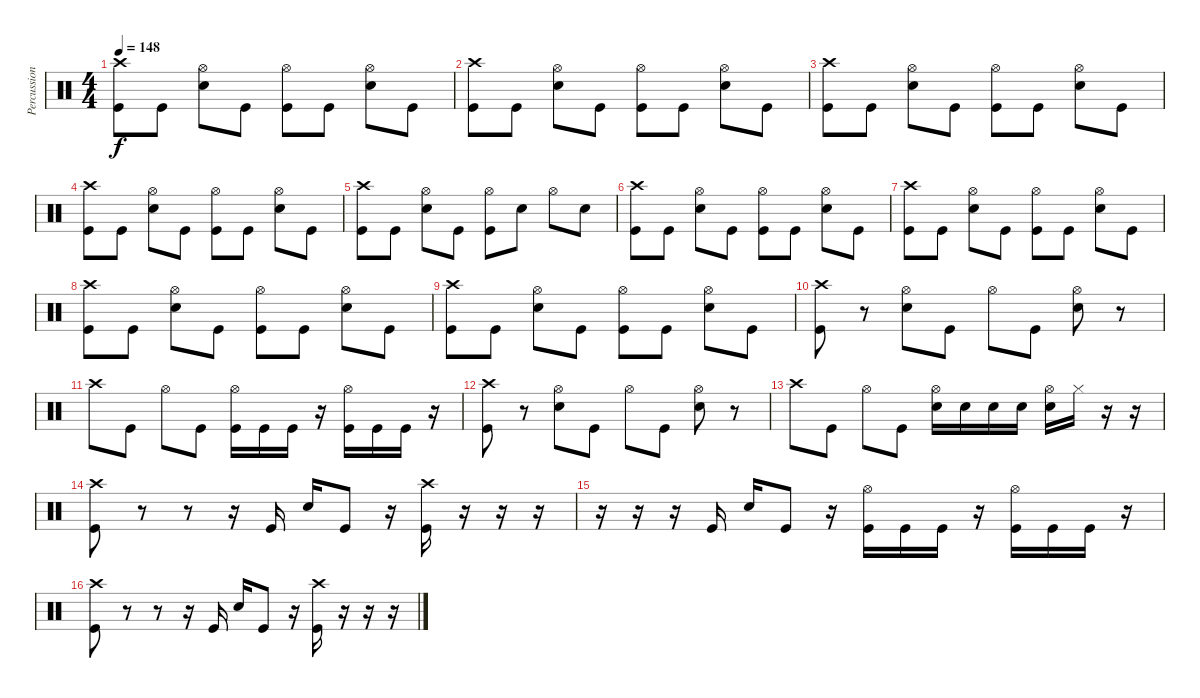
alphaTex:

\track ("Percussion" "Percussion") {instrument percussion}
\staff {score}
\articulation defaults
\ts (4 4)
\tempo 148
\clef neutral
\ks c
("Crash high (hit)" "Kick (hit)").8{dy f} "Kick (hit)".8 ("Hi-Hat (open)" "Snare (hit) 2").8 "Kick (hit)".8 ("Hi-Hat (open)" "Kick (hit)").8 "Kick (hit)".8 ("Hi-Hat (open)" "Snare (hit) 2").8 "Kick (hit)".8 |
("Crash high (hit)" "Kick (hit)").8 "Kick (hit)".8 ("Hi-Hat (open)" "Snare (hit) 2").8 "Kick (hit)".8 ("Hi-Hat (open)" "Kick (hit)").8 "Kick (hit)".8 ("Hi-Hat (open)" "Snare (hit) 2").8 "Kick (hit)".8 |
("Crash high (hit)" "Kick (hit)").8 "Kick (hit)".8 ("Hi-Hat (open)" "Snare (hit) 2").8 "Kick (hit)".8 ("Hi-Hat (open)" "Kick (hit)").8 "Kick (hit)".8 ("Hi-Hat (open)" "Snare (hit) 2").8 "Kick (hit)".8 |
("Crash high (hit)" "Kick (hit)").8 "Kick (hit)".8 ("Hi-Hat (open)" "Snare (hit) 2").8 "Kick (hit)".8 ("Hi-Hat (open)" "Kick (hit)").8 "Kick (hit)".8 ("Hi-Hat (open)" "Snare (hit) 2").8 "Kick (hit)".8 |
("Crash high (hit)" "Kick (hit)").8 "Kick (hit)".8 ("Hi-Hat (open)" "Snare (hit) 2").8 "Kick (hit)".8 ("Hi-Hat (open)" "Kick (hit)").8 "Snare (hit) 2".8 "Hi-Hat (open)".8 "Snare (hit) 2".8 |
("Crash high (hit)" "Kick (hit)").8 "Kick (hit)".8 ("Hi-Hat (open)" "Snare (hit) 2").8 "Kick (hit)".8 ("Hi-Hat (open)" "Kick (hit)").8 "Kick (hit)".8 ("Hi-Hat (open)" "Snare (hit) 2").8 "Kick (hit)".8 |
("Crash high (hit)" "Kick (hit)").8 "Kick (hit)".8 ("Hi-Hat (open)" "Snare (hit) 2").8 "Kick (hit)".8 ("Hi-Hat (open)" "Kick (hit)").8 "Kick (hit)".8 ("Hi-Hat (open)" "Snare (hit) 2").8 "Kick (hit)".8 |
("Crash high (hit)" "Kick (hit)").8 "Kick (hit)".8 ("Hi-Hat (open)" "Snare (hit) 2").8 "Kick (hit)".8 ("Hi-Hat (open)" "Kick (hit)").8 "Kick (hit)".8 ("Hi-Hat (open)" "Snare (hit) 2").8 "Kick (hit)".8 |
("Crash high (hit)" "Kick (hit)").8 "Kick (hit)".8 ("Hi-Hat (open)" "Snare (hit) 2").8 "Kick (hit)".8 ("Hi-Hat (open)" "Kick (hit)").8 "Kick (hit)".8 ("Hi-Hat (open)" "Snare (hit) 2").8 "Kick (hit)".8 |
("Crash high (hit)" "Kick (hit)").8 r.8 ("Hi-Hat (open)" "Snare (hit) 2").8 "Kick (hit)".8 "Hi-Hat (open)".8 "Kick (hit)".8 ("Hi-Hat (open)" "Snare (hit) 2").8 r.8 |
"Crash high (hit)".8 "Kick (hit)".8 "Hi-Hat (open)".8 "Kick (hit)".8 ("Hi-Hat (open)" "Kick (hit)").16 "Kick (hit)".16 "Kick (hit)".16 r.16 ("Hi-Hat (open)" "Kick (hit)").16 "Kick (hit)".16 "Kick (hit)".16 r.16 |
("Crash high (hit)" "Kick (hit)").8 r.8 ("Hi-Hat (open)" "Snare (hit) 2").8 "Kick (hit)".8 "Hi-Hat (open)".8 "Kick (hit)".8 ("Hi-Hat (open)" "Snare (hit) 2").8 r.8 |
"Crash high (hit)".8 "Kick (hit)".8 "Hi-Hat (open)".8 "Kick (hit)".8 ("Hi-Hat (open)" "Snare (hit) 2").16 "Snare (hit) 2".16 "Snare (hit) 2".16 "Snare (hit) 2".16 ("Hi-Hat (open)" "Snare (hit) 2").16 "Hi-Hat (closed)".16 r.16 r.16 |
("Crash high (hit)" "Kick (hit)").8 r.8 r.8 r.16 "Kick (hit)".16 "Snare (hit) 2".16 "Kick (hit)".8 r.16 ("Crash high (hit)" "Kick (hit)").16 r.16 r.16 r.16 |
r.16 r.16 r.16 "Kick (hit)".16 "Snare (hit) 2".16 "Kick (hit)".8 r.16 ("Hi-Hat (open)" "Kick (hit)").16 "Kick (hit)".16 "Kick (hit)".16 r.16 ("Hi-Hat (open)" "Kick (hit)").16 "Kick (hit)".16 "Kick (hit)".16 r.16 |
("Crash high (hit)" "Kick (hit)").8 r.8 r.8 r.16 "Kick (hit)".16 "Snare (hit) 2".16 "Kick (hit)".8 r.16 ("Crash high (hit)" "Kick (hit)").16 r.16 r.16 r.16
